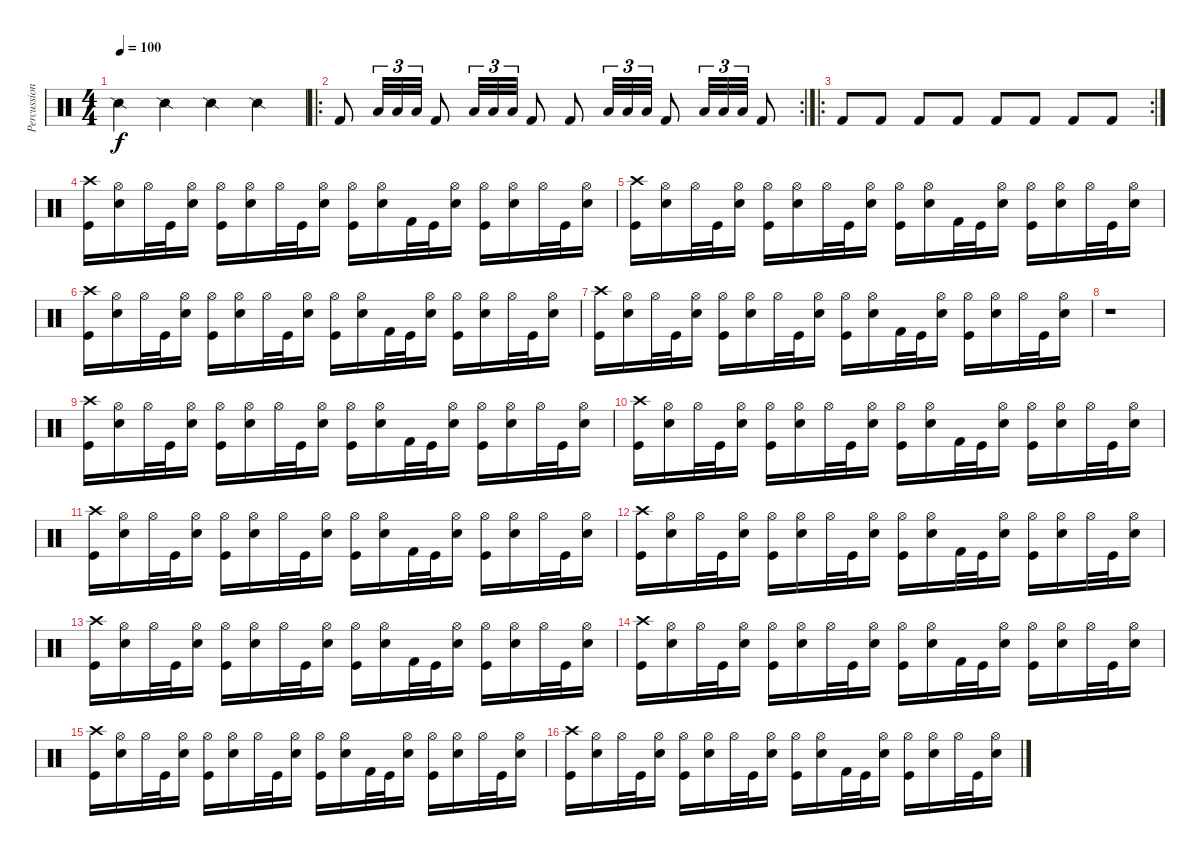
\track ("Percussion" "Percussion") {instrument percussion}
\staff {score}
\articulation defaults
\ts (4 4)
\tempo 100
\clef neutral
\ks c "Snare (side stick) 2".4{dy f} "Snare (side stick) 2".4 "Snare (side stick) 2".4 "Snare (side stick) 2".4
|
\ro
\rc 2 "Kick (hit) 2".8 "Low Tom (hit)".32{tu (3 2)} "Low Tom (hit)".32{tu (3 2)} "Low Tom (hit)".32{tu (3 2)} "Kick (hit) 2".8 "Low Tom (hit)".32{tu (3 2)} "Low Tom (hit)".32{tu (3 2)} "Low Tom (hit)".32{tu (3 2)} "Kick (hit) 2".8 "Kick (hit) 2".8 "Low Tom (hit)".32{tu (3 2)} "Low Tom (hit)".32{tu (3 2)} "Low Tom (hit)".32{tu (3 2)} "Kick (hit) 2".8 "Low Tom (hit)".32{tu (3 2)} "Low Tom (hit)".32{tu (3 2)} "Low Tom (hit)".32{tu (3 2)} "Kick (hit) 2".8
|
\ro
\rc 2 "Kick (hit) 2".8 "Kick (hit) 2".8 "Kick (hit) 2".8 "Kick (hit) 2".8 "Kick (hit) 2".8 "Kick (hit) 2".8 "Kick (hit) 2".8 "Kick (hit) 2".8
|
("Crash high (hit)" "Kick (hit)").16 ("Hi-Hat (open)" "Snare (hit) 2").16 "Hi-Hat (open)".32 "Kick (hit)".32 ("Hi-Hat (open)" "Snare (hit) 2").16 ("Hi-Hat (open)" "Kick (hit)").16 ("Hi-Hat (open)" "Snare (hit) 2").16 "Hi-Hat (open)".32 "Kick (hit)".32 ("Hi-Hat (open)" "Snare (hit) 2").16 ("Hi-Hat (open)" "Kick (hit)").16 ("Hi-Hat (open)" "Snare (hit) 2").16 "Kick (hit) 2".32 "Kick (hit)".32 ("Hi-Hat (open)" "Snare (hit) 2").16 ("Hi-Hat (open)" "Kick (hit)").16 ("Hi-Hat (open)" "Snare (hit) 2").16 "Hi-Hat (open)".32 "Kick (hit)".32 ("Hi-Hat (open)" "Snare (hit) 2").16 |
("Crash high (hit)" "Kick (hit)").16 ("Hi-Hat (open)" "Snare (hit) 2").16 "Hi-Hat (open)".32 "Kick (hit)".32 ("Hi-Hat (open)" "Snare (hit) 2").16 ("Hi-Hat (open)" "Kick (hit)").16 ("Hi-Hat (open)" "Snare (hit) 2").16 "Hi-Hat (open)".32 "Kick (hit)".32 ("Hi-Hat (open)" "Snare (hit) 2").16 ("Hi-Hat (open)" "Kick (hit)").16 ("Hi-Hat (open)" "Snare (hit) 2").16 "Kick (hit) 2".32 "Kick (hit)".32 ("Hi-Hat (open)" "Snare (hit) 2").16 ("Hi-Hat (open)" "Kick (hit)").16 ("Hi-Hat (open)" "Snare (hit) 2").16 "Hi-Hat (open)".32 "Kick (hit)".32 ("Hi-Hat (open)" "Snare (hit) 2").16 |
("Crash high (hit)" "Kick (hit)").16 ("Hi-Hat (open)" "Snare (hit) 2").16 "Hi-Hat (open)".32 "Kick (hit)".32 ("Hi-Hat (open)" "Snare (hit) 2").16 ("Hi-Hat (open)" "Kick (hit)").16 ("Hi-Hat (open)" "Snare (hit) 2").16 "Hi-Hat (open)".32 "Kick (hit)".32 ("Hi-Hat (open)" "Snare (hit) 2").16 ("Hi-Hat (open)" "Kick (hit)").16 ("Hi-Hat (open)" "Snare (hit) 2").16 "Kick (hit) 2".32 "Kick (hit)".32 ("Hi-Hat (open)" "Snare (hit) 2").16 ("Hi-Hat (open)" "Kick (hit)").16 ("Hi-Hat (open)" "Snare (hit) 2").16 "Hi-Hat (open)".32 "Kick (hit)".32 ("Hi-Hat (open)" "Snare (hit) 2").16 |
("Crash high (hit)" "Kick (hit)").16 ("Hi-Hat (open)" "Snare (hit) 2").16 "Hi-Hat (open)".32 "Kick (hit)".32 ("Hi-Hat (open)" "Snare (hit) 2").16 ("Hi-Hat (open)" "Kick (hit)").16 ("Hi-Hat (open)" "Snare (hit) 2").16 "Hi-Hat (open)".32 "Kick (hit)".32 ("Hi-Hat (open)" "Snare (hit) 2").16 ("Hi-Hat (open)" "Kick (hit)").16 ("Hi-Hat (open)" "Snare (hit) 2").16 "Kick (hit) 2".32 "Kick (hit)".32 ("Hi-Hat (open)" "Snare (hit) 2").16 ("Hi-Hat (open)" "Kick (hit)").16 ("Hi-Hat (open)" "Snare (hit) 2").16 "Hi-Hat (open)".32 "Kick (hit)".32 ("Hi-Hat (open)" "Snare (hit) 2").16 |
r.1 |
("Crash high (hit)" "Kick (hit)").16 ("Hi-Hat (open)" "Snare (hit) 2").16 "Hi-Hat (open)".32 "Kick (hit)".32 ("Hi-Hat (open)" "Snare (hit) 2").16 ("Hi-Hat (open)" "Kick (hit)").16 ("Hi-Hat (open)" "Snare (hit) 2").16 "Hi-Hat (open)".32 "Kick (hit)".32 ("Hi-Hat (open)" "Snare (hit) 2").16 ("Hi-Hat (open)" "Kick (hit)").16 ("Hi-Hat (open)" "Snare (hit) 2").16 "Kick (hit) 2".32 "Kick (hit)".32 ("Hi-Hat (open)" "Snare (hit) 2").16 ("Hi-Hat (open)" "Kick (hit)").16 ("Hi-Hat (open)" "Snare (hit) 2").16 "Hi-Hat (open)".32 "Kick (hit)".32 ("Hi-Hat (open)" "Snare (hit) 2").16 |
("Crash high (hit)" "Kick (hit)").16 ("Hi-Hat (open)" "Snare (hit) 2").16 "Hi-Hat (open)".32 "Kick (hit)".32 ("Hi-Hat (open)" "Snare (hit) 2").16 ("Hi-Hat (open)" "Kick (hit)").16 ("Hi-Hat (open)" "Snare (hit) 2").16 "Hi-Hat (open)".32 "Kick (hit)".32 ("Hi-Hat (open)" "Snare (hit) 2").16 ("Hi-Hat (open)" "Kick (hit)").16 ("Hi-Hat (open)" "Snare (hit) 2").16 "Kick (hit) 2".32 "Kick (hit)".32 ("Hi-Hat (open)" "Snare (hit) 2").16 ("Hi-Hat (open)" "Kick (hit)").16 ("Hi-Hat (open)" "Snare (hit) 2").16 "Hi-Hat (open)".32 "Kick (hit)".32 ("Hi-Hat (open)" "Snare (hit) 2").16 |
("Crash high (hit)" "Kick (hit)").16 ("Hi-Hat (open)" "Snare (hit) 2").16 "Hi-Hat (open)".32 "Kick (hit)".32 ("Hi-Hat (open)" "Snare (hit) 2").16 ("Hi-Hat (open)" "Kick (hit)").16 ("Hi-Hat (open)" "Snare (hit) 2").16 "Hi-Hat (open)".32 "Kick (hit)".32 ("Hi-Hat (open)" "Snare (hit) 2").16 ("Hi-Hat (open)" "Kick (hit)").16 ("Hi-Hat (open)" "Snare (hit) 2").16 "Kick (hit) 2".32 "Kick (hit)".32 ("Hi-Hat (open)" "Snare (hit) 2").16 ("Hi-Hat (open)" "Kick (hit)").16 ("Hi-Hat (open)" "Snare (hit) 2").16 "Hi-Hat (open)".32 "Kick (hit)".32 ("Hi-Hat (open)" "Snare (hit) 2").16 |
("Crash high (hit)" "Kick (hit)").16 ("Hi-Hat (open)" "Snare (hit) 2").16 "Hi-Hat (open)".32 "Kick (hit)".32 ("Hi-Hat (open)" "Snare (hit) 2").16 ("Hi-Hat (open)" "Kick (hit)").16 ("Hi-Hat (open)" "Snare (hit) 2").16 "Hi-Hat (open)".32 "Kick (hit)".32 ("Hi-Hat (open)" "Snare (hit) 2").16 ("Hi-Hat (open)" "Kick (hit)").16 ("Hi-Hat (open)" "Snare (hit) 2").16 "Kick (hit) 2".32 "Kick (hit)".32 ("Hi-Hat (open)" "Snare (hit) 2").16 ("Hi-Hat (open)" "Kick (hit)").16 ("Hi-Hat (open)" "Snare (hit) 2").16 "Hi-Hat (open)".32 "Kick (hit)".32 ("Hi-Hat (open)" "Snare (hit) 2").16 |
("Crash high (hit)" "Kick (hit)").16 ("Hi-Hat (open)" "Snare (hit) 2").16 "Hi-Hat (open)".32 "Kick (hit)".32 ("Hi-Hat (open)" "Snare (hit) 2").16 ("Hi-Hat (open)" "Kick (hit)").16 ("Hi-Hat (open)" "Snare (hit) 2").16 "Hi-Hat (open)".32 "Kick (hit)".32 ("Hi-Hat (open)" "Snare (hit) 2").16 ("Hi-Hat (open)" "Kick (hit)").16 ("Hi-Hat (open)" "Snare (hit) 2").16 "Kick (hit) 2".32 "Kick (hit)".32 ("Hi-Hat (open)" "Snare (hit) 2").16 ("Hi-Hat (open)" "Kick (hit)").16 ("Hi-Hat (open)" "Snare (hit) 2").16 "Hi-Hat (open)".32 "Kick (hit)".32 ("Hi-Hat (open)" "Snare (hit) 2").16 |
("Crash high (hit)" "Kick (hit)").16 ("Hi-Hat (open)" "Snare (hit) 2").16 "Hi-Hat (open)".32 "Kick (hit)".32 ("Hi-Hat (open)" "Snare (hit) 2").16 ("Hi-Hat (open)" "Kick (hit)").16 ("Hi-Hat (open)" "Snare (hit) 2").16 "Hi-Hat (open)".32 "Kick (hit)".32 ("Hi-Hat (open)" "Snare (hit) 2").16 ("Hi-Hat (open)" "Kick (hit)").16 ("Hi-Hat (open)" "Snare (hit) 2").16 "Kick (hit) 2".32 "Kick (hit)".32 ("Hi-Hat (open)" "Snare (hit) 2").16 ("Hi-Hat (open)" "Kick (hit)").16 ("Hi-Hat (open)" "Snare (hit) 2").16 "Hi-Hat (open)".32 "Kick (hit)".32 ("Hi-Hat (open)" "Snare (hit) 2").16 |
("Crash high (hit)" "Kick (hit)").16 ("Hi-Hat (open)" "Snare (hit) 2").16 "Hi-Hat (open)".32 "Kick (hit)".32 ("Hi-Hat (open)" "Snare (hit) 2").16 ("Hi-Hat (open)" "Kick (hit)").16 ("Hi-Hat (open)" "Snare (hit) 2").16 "Hi-Hat (open)".32 "Kick (hit)".32 ("Hi-Hat (open)" "Snare (hit) 2").16 ("Hi-Hat (open)" "Kick (hit)").16 ("Hi-Hat (open)" "Snare (hit) 2").16 "Kick (hit) 2".32 "Kick (hit)".32 ("Hi-Hat (open)" "Snare (hit) 2").16 ("Hi-Hat (open)" "Kick (hit)").16 ("Hi-Hat (open)" "Snare (hit) 2").16 "Hi-Hat (open)".32 "Kick (hit)".32 ("Hi-Hat (open)" "Snare (hit) 2").16 |
("Crash high (hit)" "Kick (hit)").16 ("Hi-Hat (open)" "Snare (hit) 2").16 "Hi-Hat (open)".32 "Kick (hit)".32 ("Hi-Hat (open)" "Snare (hit) 2").16 ("Hi-Hat (open)" "Kick (hit)").16 ("Hi-Hat (open)" "Snare (hit) 2").16 "Hi-Hat (open)".32 "Kick (hit)".32 ("Hi-Hat (open)" "Snare (hit) 2").16 ("Hi-Hat (open)" "Kick (hit)").16 ("Hi-Hat (open)" "Snare (hit) 2").16 "Kick (hit) 2".32 "Kick (hit)".32 ("Hi-Hat (open)" "Snare (hit) 2").16 ("Hi-Hat (open)" "Kick (hit)").16 ("Hi-Hat (open)" "Snare (hit) 2").16 "Hi-Hat (open)".32 "Kick (hit)".32 ("Hi-Hat (open)" "Snare (hit) 2").16
